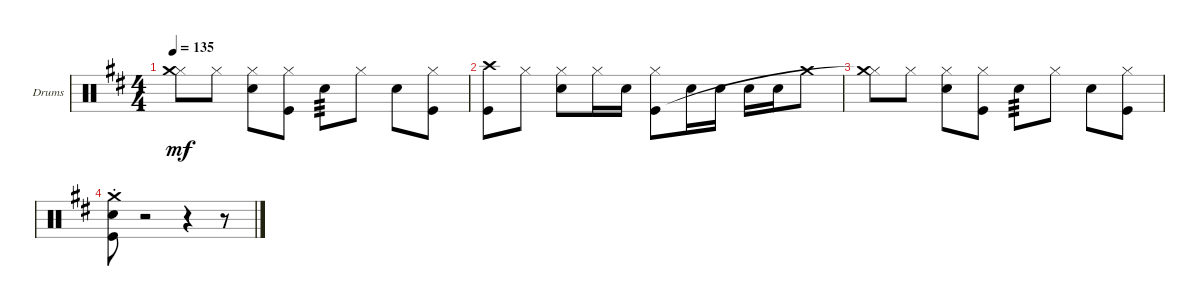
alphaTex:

\defaultSystemsLayout 4
\bracketExtendMode groupsimilarinstruments
\firstSystemTrackNameOrientation horizontal
\otherSystemsTrackNameOrientation horizontal
\track ("Drumkit" "Drums") {instrument percussion}
\staff {score}
\articulation defaults
\ts (4 4)
\tempo 135
\clef neutral
\ks bminor
("Hi-Hat (closed)" "Crash medium (hit)"{t}).8{dy mf} "Hi-Hat (closed)".8 ("Snare (hit) 2" "Hi-Hat (closed)").8 ("Kick (hit)" "Hi-Hat (closed)").8 "Snare (hit) 2".8{tp 3} "Hi-Hat (closed)".8 "Snare (hit) 2".8 ("Hi-Hat (closed)" "Kick (hit)").8 |
("Crash high (hit)" "Kick (hit)").8 "Hi-Hat (closed)".8 ("Snare (hit) 2" "Hi-Hat (closed)").8 "Hi-Hat (closed)".16 "Snare (hit) 2".16 ("Hi-Hat (closed)" "Kick (hit)").8 "Snare (hit) 2".16 "Snare (hit) 2".16 "Snare (hit) 2".16 "Snare (hit) 2".16 "Crash medium (hit)".8 |
("Hi-Hat (closed)" "Crash medium (hit)"{t}).8 "Hi-Hat (closed)".8 ("Snare (hit) 2" "Hi-Hat (closed)").8 ("Kick (hit)" "Hi-Hat (closed)").8 "Snare (hit) 2".8{tp 3} "Hi-Hat (closed)".8 "Snare (hit) 2".8 ("Hi-Hat (closed)" "Kick (hit)").8 |
("Crash medium (hit)"{st} "Kick (hit)"{st} "Snare (hit) 2"{st}).8 r.2 r.4 r.8
